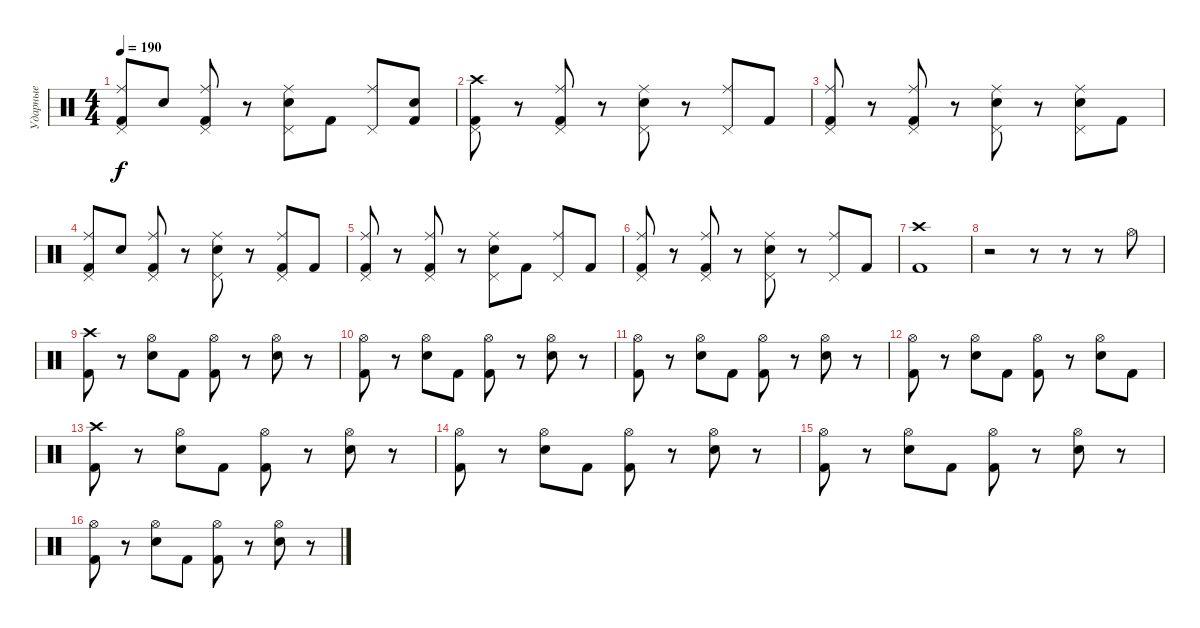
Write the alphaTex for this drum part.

\track ("Ударные" "Ударные") {instrument percussion}
\staff {score}
\articulation defaults
\ts (4 4)
\tempo 190
\clef neutral
\ks c
("Ride (middle)" "Kick (hit) 2" "Pedal Hi-Hat (hit)").8{dy f} "Electric Snare (hit)".8 ("Ride (middle)" "Kick (hit) 2" "Pedal Hi-Hat (hit)").8 r.8 ("Ride (middle)" "Electric Snare (hit)" "Pedal Hi-Hat (hit)").8 "Kick (hit) 2".8 ("Ride (middle)" "Pedal Hi-Hat (hit)").8 ("Kick (hit) 2" "Electric Snare (hit)").8 |
("Crash high (hit)" "Kick (hit) 2" "Pedal Hi-Hat (hit)").8 r.8 ("Ride (middle)" "Kick (hit) 2" "Pedal Hi-Hat (hit)").8 r.8 ("Ride (middle)" "Electric Snare (hit)" "Pedal Hi-Hat (hit)").8 r.8 ("Ride (middle)" "Pedal Hi-Hat (hit)").8 "Kick (hit) 2".8 |
("Ride (middle)" "Kick (hit) 2" "Pedal Hi-Hat (hit)").8 r.8 ("Ride (middle)" "Kick (hit) 2" "Pedal Hi-Hat (hit)").8 r.8 ("Ride (middle)" "Electric Snare (hit)" "Pedal Hi-Hat (hit)").8 r.8 ("Ride (middle)" "Electric Snare (hit)" "Pedal Hi-Hat (hit)").8 "Kick (hit) 2".8 |
("Ride (middle)" "Kick (hit) 2" "Pedal Hi-Hat (hit)").8 "Electric Snare (hit)".8 ("Ride (middle)" "Kick (hit) 2" "Pedal Hi-Hat (hit)").8 r.8 ("Ride (middle)" "Electric Snare (hit)" "Pedal Hi-Hat (hit)").8 r.8 ("Ride (middle)" "Kick (hit) 2" "Pedal Hi-Hat (hit)").8 "Kick (hit) 2".8 |
("Ride (middle)" "Kick (hit) 2" "Pedal Hi-Hat (hit)").8 r.8 ("Ride (middle)" "Kick (hit) 2" "Pedal Hi-Hat (hit)").8 r.8 ("Ride (middle)" "Electric Snare (hit)" "Pedal Hi-Hat (hit)").8 "Kick (hit) 2".8 ("Ride (middle)" "Pedal Hi-Hat (hit)").8 "Kick (hit) 2".8 |
("Ride (middle)" "Kick (hit) 2" "Pedal Hi-Hat (hit)").8 r.8 ("Ride (middle)" "Kick (hit) 2" "Pedal Hi-Hat (hit)").8 r.8 ("Ride (middle)" "Electric Snare (hit)" "Pedal Hi-Hat (hit)").8 r.8 ("Ride (middle)" "Pedal Hi-Hat (hit)").8 "Kick (hit) 2".8 |
("Crash high (hit)" "Kick (hit) 2").1 |
r.2 r.8 r.8 r.8 "Hi-Hat (open)".8 |
("Crash high (hit)" "Kick (hit) 2").8 r.8 ("Hi-Hat (open)" "Electric Snare (hit)").8 "Kick (hit) 2".8 ("Hi-Hat (open)" "Kick (hit) 2").8 r.8 ("Hi-Hat (open)" "Electric Snare (hit)").8 r.8 |
("Hi-Hat (open)" "Kick (hit) 2").8 r.8 ("Hi-Hat (open)" "Electric Snare (hit)").8 "Kick (hit) 2".8 ("Hi-Hat (open)" "Kick (hit) 2").8 r.8 ("Hi-Hat (open)" "Electric Snare (hit)").8 r.8 |
("Hi-Hat (open)" "Kick (hit) 2").8 r.8 ("Hi-Hat (open)" "Electric Snare (hit)").8 "Kick (hit) 2".8 ("Hi-Hat (open)" "Kick (hit) 2").8 r.8 ("Hi-Hat (open)" "Electric Snare (hit)").8 r.8 |
("Hi-Hat (open)" "Kick (hit) 2").8 r.8 ("Hi-Hat (open)" "Electric Snare (hit)").8 "Kick (hit) 2".8 ("Hi-Hat (open)" "Kick (hit) 2").8 r.8 ("Hi-Hat (open)" "Electric Snare (hit)").8 "Kick (hit) 2".8 |
("Crash high (hit)" "Kick (hit) 2").8 r.8 ("Hi-Hat (open)" "Electric Snare (hit)").8 "Kick (hit) 2".8 ("Hi-Hat (open)" "Kick (hit) 2").8 r.8 ("Hi-Hat (open)" "Electric Snare (hit)").8 r.8 |
("Hi-Hat (open)" "Kick (hit) 2").8 r.8 ("Hi-Hat (open)" "Electric Snare (hit)").8 "Kick (hit) 2".8 ("Hi-Hat (open)" "Kick (hit) 2").8 r.8 ("Hi-Hat (open)" "Electric Snare (hit)").8 r.8 |
("Hi-Hat (open)" "Kick (hit) 2").8 r.8 ("Hi-Hat (open)" "Electric Snare (hit)").8 "Kick (hit) 2".8 ("Hi-Hat (open)" "Kick (hit) 2").8 r.8 ("Hi-Hat (open)" "Electric Snare (hit)").8 r.8 |
("Hi-Hat (open)" "Kick (hit) 2").8 r.8 ("Hi-Hat (open)" "Electric Snare (hit)").8 "Kick (hit) 2".8 ("Hi-Hat (open)" "Kick (hit) 2").8 r.8 ("Hi-Hat (open)" "Electric Snare (hit)").8 r.8
